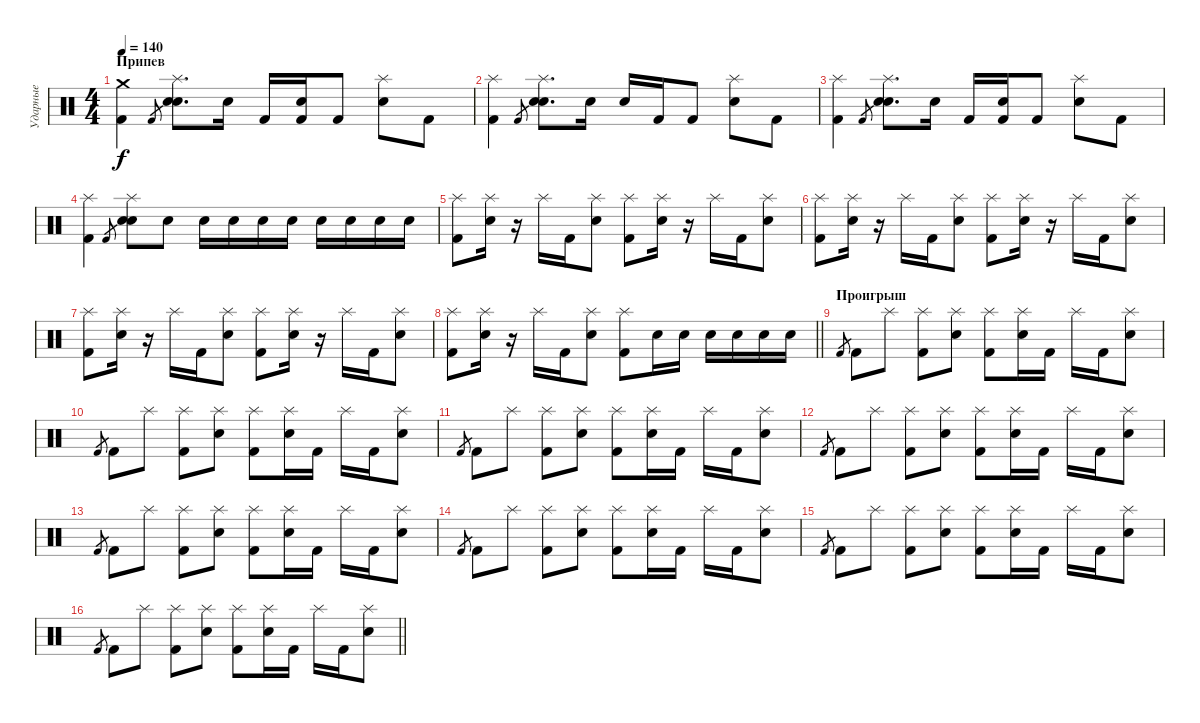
\track ("Ударные" "Ударные") {instrument percussion}
\staff {score}
\articulation defaults
\ts (4 4)
\section ("" "Припев")
\tempo 140
\clef neutral
\ks c
("Crash medium (hit)" "Kick (hit) 2").4{dy f} "Kick (hit) 2".8{gr} ("Splash (hit)" "Electric Snare (hit)" "Snare (hit) 2").8{d} "Electric Snare (hit)".16 "Kick (hit) 2".16 ("Electric Snare (hit)" "Kick (hit) 2").16 "Kick (hit) 2".8 ("Splash (hit)" "Electric Snare (hit)").8 "Kick (hit) 2".8 |
("Splash (hit)" "Kick (hit) 2").4 "Kick (hit) 2".8{gr} ("Splash (hit)" "Electric Snare (hit)" "Snare (hit) 2").8{d} "Electric Snare (hit)".16 "Electric Snare (hit)".16 "Kick (hit) 2".16 "Kick (hit) 2".8 ("Splash (hit)" "Electric Snare (hit)").8 "Kick (hit) 2".8 |
("Splash (hit)" "Kick (hit) 2").4 "Kick (hit) 2".8{gr} ("Splash (hit)" "Electric Snare (hit)" "Snare (hit) 2").8{d} "Electric Snare (hit)".16 "Kick (hit) 2".16 ("Electric Snare (hit)" "Kick (hit) 2").16 "Kick (hit) 2".8 ("Splash (hit)" "Electric Snare (hit)").8 "Kick (hit) 2".8 |
("Splash (hit)" "Kick (hit) 2").4 "Kick (hit) 2".8{gr} ("Splash (hit)" "Electric Snare (hit)" "Snare (hit) 2").8 "Electric Snare (hit)".8 "Electric Snare (hit)".16 "Electric Snare (hit)".16 "Electric Snare (hit)".16 "Electric Snare (hit)".16 "Electric Snare (hit)".16 "Electric Snare (hit)".16 "Electric Snare (hit)".16 "Electric Snare (hit)".16 |
("Splash (hit)" "Kick (hit) 2").8 ("Splash (hit)" "Electric Snare (hit)").16 r.16 "Splash (hit)".16 "Kick (hit) 2".16 ("Splash (hit)" "Electric Snare (hit)").8 ("Splash (hit)" "Kick (hit) 2").8 ("Splash (hit)" "Electric Snare (hit)").16 r.16 "Splash (hit)".16 "Kick (hit) 2".16 ("Splash (hit)" "Electric Snare (hit)").8 |
("Splash (hit)" "Kick (hit) 2").8 ("Splash (hit)" "Electric Snare (hit)").16 r.16 "Splash (hit)".16 "Kick (hit) 2".16 ("Splash (hit)" "Electric Snare (hit)").8 ("Splash (hit)" "Kick (hit) 2").8 ("Splash (hit)" "Electric Snare (hit)").16 r.16 "Splash (hit)".16 "Kick (hit) 2".16 ("Splash (hit)" "Electric Snare (hit)").8 |
("Splash (hit)" "Kick (hit) 2").8 ("Splash (hit)" "Electric Snare (hit)").16 r.16 "Splash (hit)".16 "Kick (hit) 2".16 ("Splash (hit)" "Electric Snare (hit)").8 ("Splash (hit)" "Kick (hit) 2").8 ("Splash (hit)" "Electric Snare (hit)").16 r.16 "Splash (hit)".16 "Kick (hit) 2".16 ("Splash (hit)" "Electric Snare (hit)").8 |
\barLineRight lightlight
("Splash (hit)" "Kick (hit) 2").8 ("Splash (hit)" "Electric Snare (hit)").16 r.16 "Splash (hit)".16 "Kick (hit) 2".16 ("Splash (hit)" "Electric Snare (hit)").8 ("Splash (hit)" "Kick (hit) 2").8 "Electric Snare (hit)".16 "Electric Snare (hit)".16 "Electric Snare (hit)".16 "Electric Snare (hit)".16 "Electric Snare (hit)".16 "Electric Snare (hit)".16 |
\section ("" "Проигрыш")
"Kick (hit) 2".8{gr} "Kick (hit) 2".8 "Splash (hit)".8 ("Splash (hit)" "Kick (hit) 2").8 ("Splash (hit)" "Electric Snare (hit)").8 ("Splash (hit)" "Kick (hit) 2").8 ("Splash (hit)" "Electric Snare (hit)").16 "Kick (hit) 2".16 "Splash (hit)".16 "Kick (hit) 2".16 ("Splash (hit)" "Electric Snare (hit)").8 |
"Kick (hit) 2".8{gr} "Kick (hit) 2".8 "Splash (hit)".8 ("Splash (hit)" "Kick (hit) 2").8 ("Splash (hit)" "Electric Snare (hit)").8 ("Splash (hit)" "Kick (hit) 2").8 ("Splash (hit)" "Electric Snare (hit)").16 "Kick (hit) 2".16 "Splash (hit)".16 "Kick (hit) 2".16 ("Splash (hit)" "Electric Snare (hit)").8 |
"Kick (hit) 2".8{gr} "Kick (hit) 2".8 "Splash (hit)".8 ("Splash (hit)" "Kick (hit) 2").8 ("Splash (hit)" "Electric Snare (hit)").8 ("Splash (hit)" "Kick (hit) 2").8 ("Splash (hit)" "Electric Snare (hit)").16 "Kick (hit) 2".16 "Splash (hit)".16 "Kick (hit) 2".16 ("Splash (hit)" "Electric Snare (hit)").8 |
"Kick (hit) 2".8{gr} "Kick (hit) 2".8 "Splash (hit)".8 ("Splash (hit)" "Kick (hit) 2").8 ("Splash (hit)" "Electric Snare (hit)").8 ("Splash (hit)" "Kick (hit) 2").8 ("Splash (hit)" "Electric Snare (hit)").16 "Kick (hit) 2".16 "Splash (hit)".16 "Kick (hit) 2".16 ("Splash (hit)" "Electric Snare (hit)").8 |
"Kick (hit) 2".8{gr} "Kick (hit) 2".8 "Splash (hit)".8 ("Splash (hit)" "Kick (hit) 2").8 ("Splash (hit)" "Electric Snare (hit)").8 ("Splash (hit)" "Kick (hit) 2").8 ("Splash (hit)" "Electric Snare (hit)").16 "Kick (hit) 2".16 "Splash (hit)".16 "Kick (hit) 2".16 ("Splash (hit)" "Electric Snare (hit)").8 |
"Kick (hit) 2".8{gr} "Kick (hit) 2".8 "Splash (hit)".8 ("Splash (hit)" "Kick (hit) 2").8 ("Splash (hit)" "Electric Snare (hit)").8 ("Splash (hit)" "Kick (hit) 2").8 ("Splash (hit)" "Electric Snare (hit)").16 "Kick (hit) 2".16 "Splash (hit)".16 "Kick (hit) 2".16 ("Splash (hit)" "Electric Snare (hit)").8 |
"Kick (hit) 2".8{gr} "Kick (hit) 2".8 "Splash (hit)".8 ("Splash (hit)" "Kick (hit) 2").8 ("Splash (hit)" "Electric Snare (hit)").8 ("Splash (hit)" "Kick (hit) 2").8 ("Splash (hit)" "Electric Snare (hit)").16 "Kick (hit) 2".16 "Splash (hit)".16 "Kick (hit) 2".16 ("Splash (hit)" "Electric Snare (hit)").8 |
\barLineRight lightlight "Kick (hit) 2".8{gr} "Kick (hit) 2".8 "Splash (hit)".8
("Splash (hit)" "Kick (hit) 2").8 ("Splash (hit)" "Electric Snare (hit)").8 ("Splash (hit)" "Kick (hit) 2").8 ("Splash (hit)" "Electric Snare (hit)").16 "Kick (hit) 2".16 "Splash (hit)".16 "Kick (hit) 2".16 ("Splash (hit)" "Electric Snare (hit)").8
